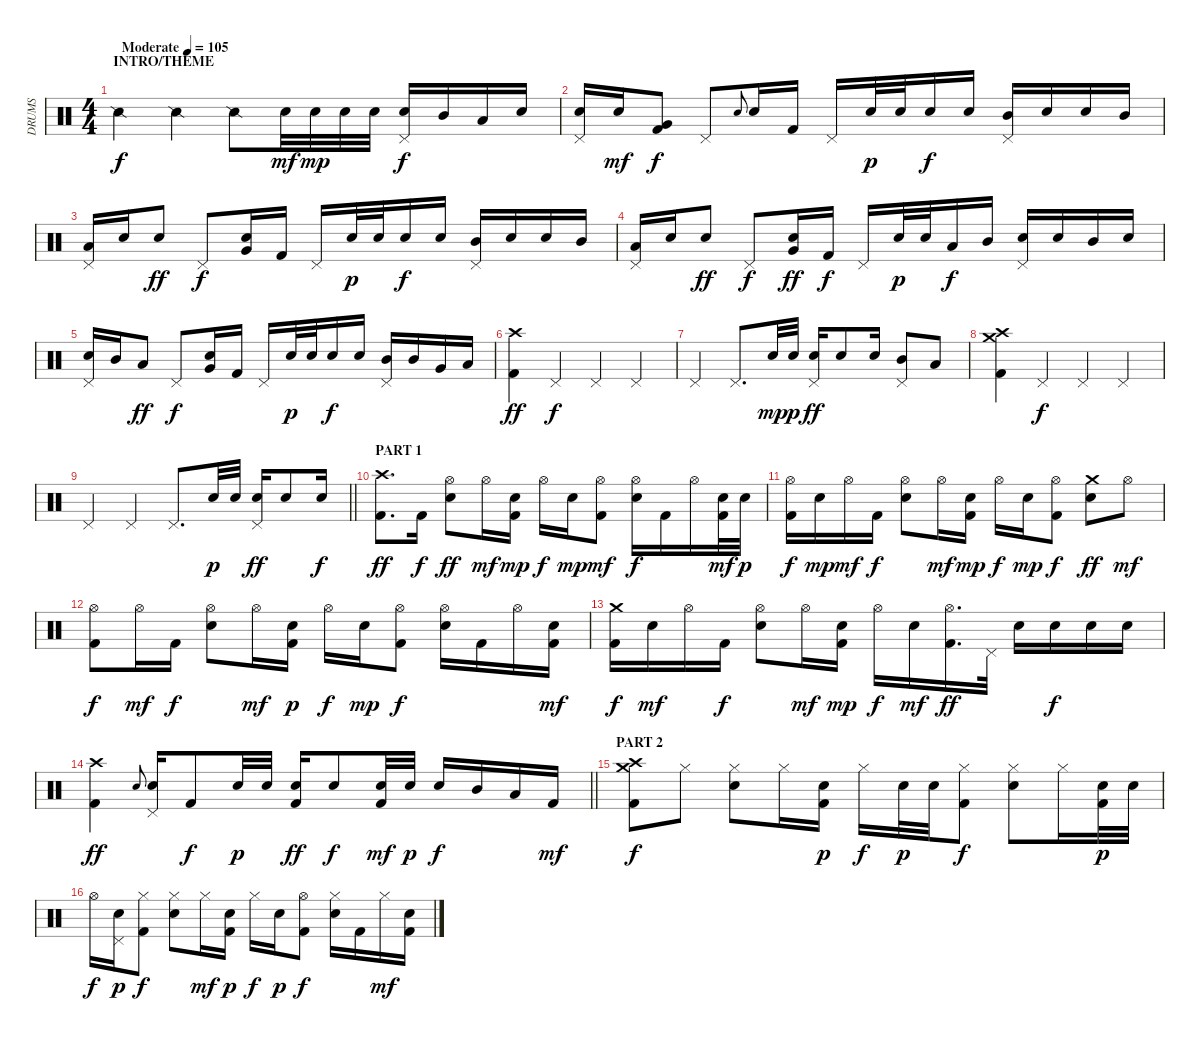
\track ("DRUMS" "DRUMS") {instrument percussion}
\staff {score}
\articulation defaults
\ts (4 4)
\section ("" "INTRO/THEME")
\tempo (105 "Moderate")
\clef neutral
\ks c "Snare (side stick) 2".4{dy f} "Snare (side stick) 2".4 "Snare (side stick) 2".8 "Electric Snare (hit)".32{dy mf} "Snare (hit) 2".32{dy mp} "Electric Snare (hit)".32 "Snare (hit) 2".32
("Pedal Hi-Hat (hit)" "Electric Snare (hit)").16{dy f} "Mid Tom (hit)".16 "Low Tom (hit)".16 "Snare (hit) 2".16 |
("Pedal Hi-Hat (hit)" "Electric Snare (hit)").16 "Snare (hit) 2".16{dy mf} ("Very Low Tom (hit)" "Kick (hit) 2").8{dy f} "Pedal Hi-Hat (hit)".8 "Electric Snare (hit)".8{gr onbeat} "Snare (hit) 2".16 "Kick (hit) 2".16 "Pedal Hi-Hat (hit)".16 "Snare (hit) 2".32{dy p} "Snare (hit) 2".32 "Electric Snare (hit)".16{dy f} "Snare (hit) 2".16 ("Pedal Hi-Hat (hit)" "Mid Tom (hit)").16 "Snare (hit) 2".16 "Electric Snare (hit)".16 "Mid Tom (hit)".16 |
("Pedal Hi-Hat (hit)" "Low Tom (hit)").16 "Snare (hit) 2".16 "Electric Snare (hit)".8{dy ff} "Pedal Hi-Hat (hit)".8{dy f} ("Snare (hit) 2" "Very Low Tom (hit)").16 "Kick (hit) 2".16 "Pedal Hi-Hat (hit)".16 "Snare (hit) 2".32{dy p} "Snare (hit) 2".32 "Electric Snare (hit)".16{dy f} "Snare (hit) 2".16 ("Pedal Hi-Hat (hit)" "Mid Tom (hit)").16 "Snare (hit) 2".16 "Electric Snare (hit)".16 "Mid Tom (hit)".16 |
("Pedal Hi-Hat (hit)" "Low Tom (hit)").16 "Snare (hit) 2".16 "Electric Snare (hit)".8{dy ff} "Pedal Hi-Hat (hit)".8{dy f} ("Snare (hit) 2" "Very Low Tom (hit)").16{dy ff} "Kick (hit) 2".16{dy f} "Pedal Hi-Hat (hit)".16 "Snare (hit) 2".32{dy p} "Snare (hit) 2".32 "Low Floor Tom (hit)".16{dy f} "Mid Tom (hit)".16 ("Pedal Hi-Hat (hit)" "Electric Snare (hit)").16 "Snare (hit) 2".16 "Mid Tom (hit)".16 "Snare (hit) 2".16 |
("Pedal Hi-Hat (hit)" "Electric Snare (hit)").16 "Mid Tom (hit)".16 "Low Tom (hit)".8{dy ff} "Pedal Hi-Hat (hit)".8{dy f} ("Snare (hit) 2" "Very Low Tom (hit)").16 "Kick (hit) 2".16 "Pedal Hi-Hat (hit)".16 "Snare (hit) 2".32{dy p} "Snare (hit) 2".32 "Electric Snare (hit)".16{dy f} "Snare (hit) 2".16 ("Pedal Hi-Hat (hit)" "Mid Tom (hit)").16 "Mid Tom (hit)".16 "Very Low Tom (hit)".16 "Low Tom (hit)".16 |
("Crash high (hit)" "Kick (hit) 2").4{dy ff} "Pedal Hi-Hat (hit)".4{dy f} "Pedal Hi-Hat (hit)".4 "Pedal Hi-Hat (hit)".4 |
"Pedal Hi-Hat (hit)".4 "Pedal Hi-Hat (hit)".8{d} "Snare (hit) 2".32{dy mp} "Snare (hit) 2".32{dy p} ("Pedal Hi-Hat (hit)" "Electric Snare (hit)").16{dy ff} "Snare (hit) 2".8 "Snare (hit) 2".16 ("Pedal Hi-Hat (hit)" "Mid Tom (hit)").8 "Low Tom (hit)".8 |
("Crash medium (hit)" "Crash high (hit)" "Kick (hit) 2").4 "Pedal Hi-Hat (hit)".4{dy f} "Pedal Hi-Hat (hit)".4 "Pedal Hi-Hat (hit)".4 |
\barLineRight lightlight "Pedal Hi-Hat (hit)".4 "Pedal Hi-Hat (hit)".4 "Pedal Hi-Hat (hit)".8{d} "Snare (hit) 2".32{dy p} "Snare (hit) 2".32
("Pedal Hi-Hat (hit)" "Electric Snare (hit)").16{dy ff} "Snare (hit) 2".8 "Snare (hit) 2".16{dy f} |
\section ("" "PART 1")
("Crash high (hit)" "Kick (hit) 2").8{d dy ff} "Kick (hit) 2".16{dy f} ("Hi-Hat (open)" "Snare (hit) 2").8{dy ff} "Hi-Hat (open)".16{dy mf} ("Snare (hit) 2" "Kick (hit) 2").16{dy mp} "Hi-Hat (open)".16{dy f} "Snare (hit) 2".16{dy mp} ("Hi-Hat (open)" "Kick (hit) 2").8{dy mf} ("Hi-Hat (open)" "Snare (hit) 2").16{dy f} "Kick (hit) 2".16 "Hi-Hat (open)".16 ("Snare (hit) 2" "Kick (hit) 2").32{dy mf} "Snare (hit) 2".32{dy p} |
("Hi-Hat (open)" "Kick (hit) 2").16{dy f} "Snare (hit) 2".16{dy mp} "Hi-Hat (open)".16{dy mf} "Kick (hit) 2".16{dy f} ("Hi-Hat (open)" "Snare (hit) 2").8 "Hi-Hat (open)".16{dy mf} ("Snare (hit) 2" "Kick (hit) 2").16{dy mp} "Hi-Hat (open)".16{dy f} "Snare (hit) 2".16{dy mp} ("Hi-Hat (open)" "Kick (hit) 2").8{dy f} ("Crash medium (hit)" "Snare (hit) 2").8{dy ff} "Hi-Hat (open)".8{dy mf} |
("Hi-Hat (open)" "Kick (hit) 2").8{dy f} "Hi-Hat (open)".16{dy mf} "Kick (hit) 2".16{dy f} ("Hi-Hat (open)" "Snare (hit) 2").8 "Hi-Hat (open)".16{dy mf} ("Snare (hit) 2" "Kick (hit) 2").16{dy p} "Hi-Hat (open)".16{dy f} "Snare (hit) 2".16{dy mp} ("Hi-Hat (open)" "Kick (hit) 2").8{dy f} ("Hi-Hat (open)" "Snare (hit) 2").16 "Kick (hit) 2".16 "Hi-Hat (open)".16 ("Snare (hit) 2" "Kick (hit) 2").16{dy mf} |
("Crash medium (hit)" "Kick (hit) 2").16{dy f} "Snare (hit) 2".16{dy mf} "Hi-Hat (open)".16 "Kick (hit) 2".16{dy f} ("Hi-Hat (open)" "Snare (hit) 2").8 "Hi-Hat (open)".16{dy mf} ("Snare (hit) 2" "Kick (hit) 2").16{dy mp} "Hi-Hat (open)".16{dy f} "Snare (hit) 2".16{dy mf} ("Hi-Hat (open)" "Kick (hit) 2").16{d dy ff} "Pedal Hi-Hat (hit)".32 "Electric Snare (hit)".16 "Snare (hit) 2".16{dy f} "Electric Snare (hit)".16 "Snare (hit) 2".16 |
\barLineRight lightlight
("Crash high (hit)" "Kick (hit) 2").4{dy ff} "Electric Snare (hit)".8{gr onbeat} ("Pedal Hi-Hat (hit)" "Snare (hit) 2").16 "Kick (hit) 2".8{dy f} "Snare (hit) 2".32{dy p} "Snare (hit) 2".32 ("Electric Snare (hit)" "Kick (hit) 2").16{dy ff} "Snare (hit) 2".8{dy f} ("Snare (hit) 2" "Kick (hit) 2").32{dy mf} "Snare (hit) 2".32{dy p} "Electric Snare (hit)".16{dy f} "Mid Tom (hit)".16 "Low Tom (hit)".16 "Kick (hit) 2".16{dy mf} |
\section ("" "PART 2")
("Crash medium (hit)" "Crash high (hit)" "Kick (hit) 2").8{dy f} "Hi-Hat (closed)".8 ("Hi-Hat (closed)" "Snare (hit) 2").8 "Hi-Hat (closed)".16 ("Snare (hit) 2" "Kick (hit) 2").16{dy p} "Hi-Hat (closed)".16{dy f} "Snare (hit) 2".32{dy p} "Snare (hit) 2".32 ("Hi-Hat (closed)" "Kick (hit) 2").8{dy f} ("Hi-Hat (closed)" "Snare (hit) 2").8 "Hi-Hat (closed)".16 ("Snare (hit) 2" "Kick (hit) 2").32{dy p} "Snare (hit) 2".32 |
"Hi-Hat (open)".16{dy f} ("Pedal Hi-Hat (hit)" "Snare (hit) 2").16{dy p} ("Hi-Hat (closed)" "Kick (hit) 2").8{dy f} ("Hi-Hat (closed)" "Snare (hit) 2").8 "Hi-Hat (closed)".16{dy mf} ("Snare (hit) 2" "Kick (hit) 2").16{dy p} "Hi-Hat (closed)".16{dy f} "Snare (hit) 2".16{dy p} ("Hi-Hat (open)" "Kick (hit) 2").8{dy f} ("Hi-Hat (closed)" "Snare (hit) 2").16 "Kick (hit) 2".16 "Hi-Hat (closed)".16{dy mf} ("Snare (hit) 2" "Kick (hit) 2").16
